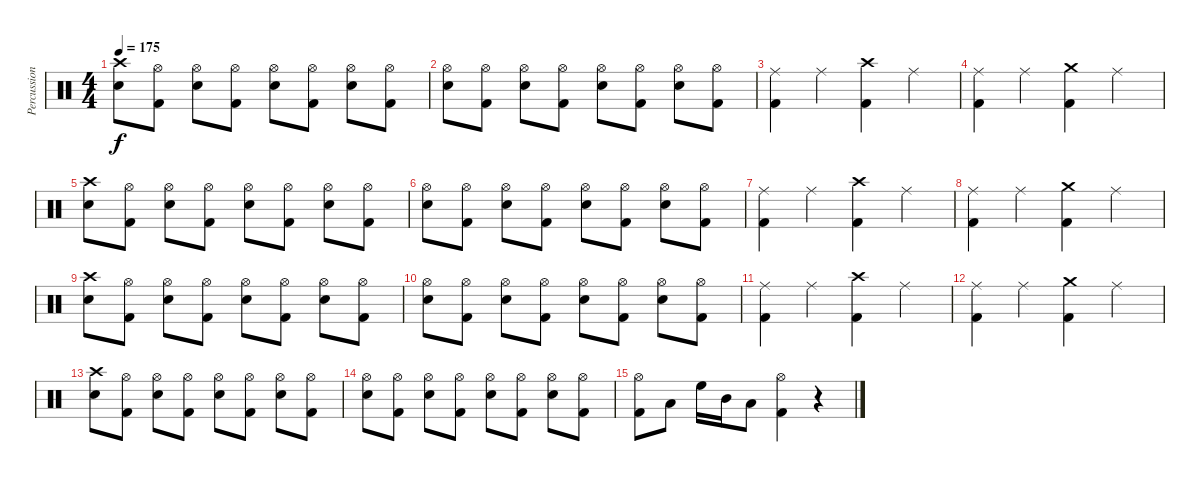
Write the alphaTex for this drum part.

\track ("Percussion" "Percussion") {instrument percussion}
\staff {score}
\articulation defaults
\ts (4 4)
\tempo 175
\clef neutral
\ks c
("Crash high (hit)" "Snare (hit) 2").8{dy f} ("Hi-Hat (open)" "Kick (hit) 2").8 ("Hi-Hat (open)" "Snare (hit) 2").8 ("Hi-Hat (open)" "Kick (hit) 2").8 ("Hi-Hat (open)" "Snare (hit) 2").8 ("Hi-Hat (open)" "Kick (hit) 2").8 ("Hi-Hat (open)" "Snare (hit) 2").8 ("Hi-Hat (open)" "Kick (hit) 2").8 |
("Hi-Hat (open)" "Snare (hit) 2").8 ("Hi-Hat (open)" "Kick (hit) 2").8 ("Hi-Hat (open)" "Snare (hit) 2").8 ("Hi-Hat (open)" "Kick (hit) 2").8 ("Hi-Hat (open)" "Snare (hit) 2").8 ("Hi-Hat (open)" "Kick (hit) 2").8 ("Hi-Hat (open)" "Snare (hit) 2").8 ("Hi-Hat (open)" "Kick (hit) 2").8 |
("Ride (middle)" "Kick (hit) 2").4 "Ride (middle)".4 ("Crash high (hit)" "Kick (hit) 2").4 "Ride (middle)".4 |
("Ride (middle)" "Kick (hit) 2").4 "Ride (middle)".4 ("Crash medium (hit)" "Kick (hit) 2").4 "Ride (middle)".4 |
("Crash high (hit)" "Snare (hit) 2").8 ("Hi-Hat (open)" "Kick (hit) 2").8 ("Hi-Hat (open)" "Snare (hit) 2").8 ("Hi-Hat (open)" "Kick (hit) 2").8 ("Hi-Hat (open)" "Snare (hit) 2").8 ("Hi-Hat (open)" "Kick (hit) 2").8 ("Hi-Hat (open)" "Snare (hit) 2").8 ("Hi-Hat (open)" "Kick (hit) 2").8 |
("Hi-Hat (open)" "Snare (hit) 2").8 ("Hi-Hat (open)" "Kick (hit) 2").8 ("Hi-Hat (open)" "Snare (hit) 2").8 ("Hi-Hat (open)" "Kick (hit) 2").8 ("Hi-Hat (open)" "Snare (hit) 2").8 ("Hi-Hat (open)" "Kick (hit) 2").8 ("Hi-Hat (open)" "Snare (hit) 2").8 ("Hi-Hat (open)" "Kick (hit) 2").8 |
("Ride (middle)" "Kick (hit) 2").4 "Ride (middle)".4 ("Crash high (hit)" "Kick (hit) 2").4 "Ride (middle)".4 |
("Ride (middle)" "Kick (hit) 2").4 "Ride (middle)".4 ("Crash medium (hit)" "Kick (hit) 2").4 "Ride (middle)".4 |
("Crash high (hit)" "Snare (hit) 2").8 ("Hi-Hat (open)" "Kick (hit) 2").8 ("Hi-Hat (open)" "Snare (hit) 2").8 ("Hi-Hat (open)" "Kick (hit) 2").8 ("Hi-Hat (open)" "Snare (hit) 2").8 ("Hi-Hat (open)" "Kick (hit) 2").8 ("Hi-Hat (open)" "Snare (hit) 2").8 ("Hi-Hat (open)" "Kick (hit) 2").8 |
("Hi-Hat (open)" "Snare (hit) 2").8 ("Hi-Hat (open)" "Kick (hit) 2").8 ("Hi-Hat (open)" "Snare (hit) 2").8 ("Hi-Hat (open)" "Kick (hit) 2").8 ("Hi-Hat (open)" "Snare (hit) 2").8 ("Hi-Hat (open)" "Kick (hit) 2").8 ("Hi-Hat (open)" "Snare (hit) 2").8 ("Hi-Hat (open)" "Kick (hit) 2").8 |
("Ride (middle)" "Kick (hit) 2").4 "Ride (middle)".4 ("Crash high (hit)" "Kick (hit) 2").4 "Ride (middle)".4 |
("Ride (middle)" "Kick (hit) 2").4 "Ride (middle)".4 ("Crash medium (hit)" "Kick (hit) 2").4 "Ride (middle)".4 |
("Crash high (hit)" "Snare (hit) 2").8 ("Hi-Hat (open)" "Kick (hit) 2").8 ("Hi-Hat (open)" "Snare (hit) 2").8 ("Hi-Hat (open)" "Kick (hit) 2").8 ("Hi-Hat (open)" "Snare (hit) 2").8 ("Hi-Hat (open)" "Kick (hit) 2").8 ("Hi-Hat (open)" "Snare (hit) 2").8 ("Hi-Hat (open)" "Kick (hit) 2").8 |
("Hi-Hat (open)" "Snare (hit) 2").8 ("Hi-Hat (open)" "Kick (hit) 2").8 ("Hi-Hat (open)" "Snare (hit) 2").8 ("Hi-Hat (open)" "Kick (hit) 2").8 ("Hi-Hat (open)" "Snare (hit) 2").8 ("Hi-Hat (open)" "Kick (hit) 2").8 ("Hi-Hat (open)" "Snare (hit) 2").8 ("Hi-Hat (open)" "Kick (hit) 2").8 |
("Hi-Hat (open)" "Kick (hit) 2").8 "Low Floor Tom (hit)".8 "High Floor Tom (hit)".16 "Mid Tom (hit)".16 "Low Floor Tom (hit)".8 ("Hi-Hat (open)" "Kick (hit) 2").4 r.4
